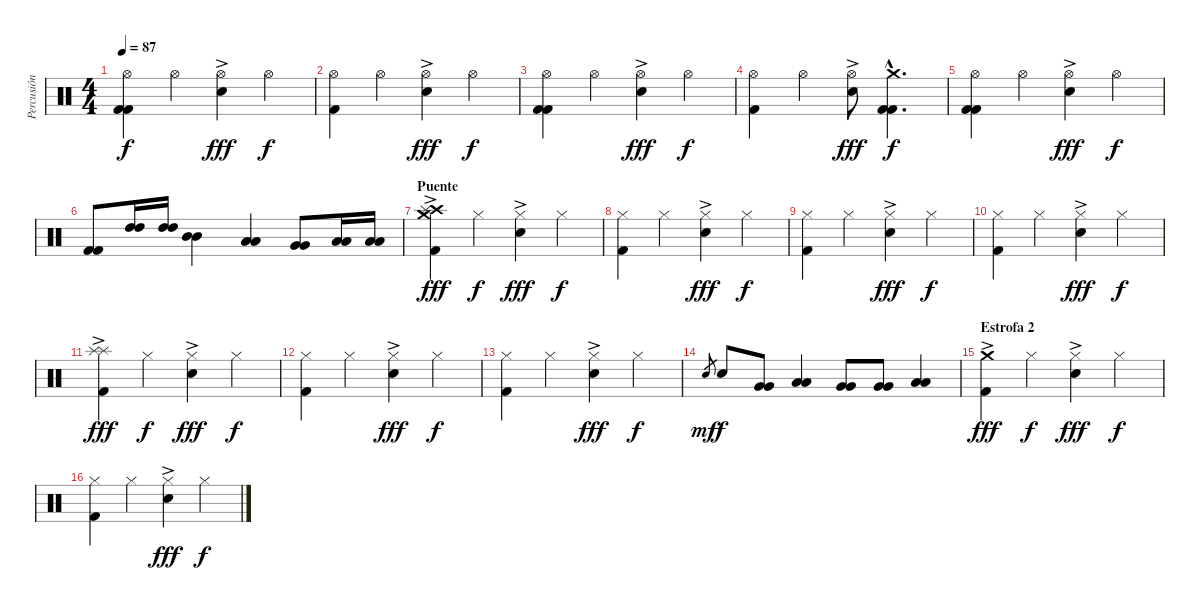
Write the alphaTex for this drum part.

\track ("Percusión" "Percusión") {instrument percussion}
\staff {score}
\articulation defaults
\ts (4 4)
\tempo 87
\clef neutral
\ks c
("Hi-Hat (open)" "Kick (hit) 2" "Kick (hit) 2").4{dy f} "Hi-Hat (open)".4 ("Hi-Hat (open)"{ac} "Snare (hit) 2").4{dy fff} "Hi-Hat (open)".4{dy f} |
("Hi-Hat (open)" "Kick (hit) 2").4 "Hi-Hat (open)".4 ("Hi-Hat (open)" "Snare (hit) 2"{ac}).4{dy fff} "Hi-Hat (open)".4{dy f} |
("Hi-Hat (open)" "Kick (hit) 2" "Kick (hit) 2").4 "Hi-Hat (open)".4 ("Hi-Hat (open)"{ac} "Snare (hit) 2").4{dy fff} "Hi-Hat (open)".4{dy f} |
("Hi-Hat (open)" "Kick (hit) 2").4 "Hi-Hat (open)".4 ("Hi-Hat (open)" "Snare (hit) 2"{ac}).8{dy fff} ("Crash medium (hit)"{hac} "Kick (hit) 2"{hac} "Kick (hit) 2"{hac}).4{d dy f} |
("Hi-Hat (open)" "Kick (hit) 2" "Kick (hit) 2").4 "Hi-Hat (open)".4 ("Hi-Hat (open)"{ac} "Snare (hit) 2").4{dy fff} "Hi-Hat (open)".4{dy f} |
("Kick (hit) 2" "Kick (hit) 2").8 ("High Tom (hit)" "High Tom (hit)").16 ("High Tom (hit)" "High Tom (hit)").16 ("Mid Tom (hit)" "Mid Tom (hit)").4 ("Low Tom (hit)" "Low Tom (hit)").4 ("Very Low Tom (hit)" "Very Low Tom (hit)").8 ("Low Tom (hit)" "Low Tom (hit)").16 ("Low Tom (hit)" "Low Tom (hit)").16 |
\section ("" "Puente")
("Crash medium (hit)"{ac} "Crash high (hit)" "Splash (hit)" "Kick (hit) 2").4{dy fff} "Hi-Hat (closed)".4{dy f} ("Hi-Hat (closed)" "Snare (hit) 2"{ac}).4{dy fff} "Hi-Hat (closed)".4{dy f} |
("Hi-Hat (closed)" "Kick (hit) 2").4 "Hi-Hat (closed)".4 ("Hi-Hat (closed)" "Snare (hit) 2"{ac}).4{dy fff} "Hi-Hat (closed)".4{dy f} |
("Hi-Hat (closed)" "Kick (hit) 2").4 "Hi-Hat (closed)".4 ("Hi-Hat (closed)"{ac} "Snare (hit) 2"{ac}).4{dy fff} "Hi-Hat (closed)".4{dy f} |
("Hi-Hat (closed)" "Kick (hit) 2").4 "Hi-Hat (closed)".4 ("Hi-Hat (closed)"{ac} "Snare (hit) 2"{ac}).4{dy fff} "Hi-Hat (closed)".4{dy f} |
("Splash (hit)"{ac} "Splash (hit)" "Kick (hit) 2").4{dy fff} "Hi-Hat (closed)".4{dy f} ("Hi-Hat (closed)" "Snare (hit) 2"{ac}).4{dy fff} "Hi-Hat (closed)".4{dy f} |
("Hi-Hat (closed)" "Kick (hit) 2").4 "Hi-Hat (closed)".4 ("Hi-Hat (closed)" "Snare (hit) 2"{ac}).4{dy fff} "Hi-Hat (closed)".4{dy f} |
("Hi-Hat (closed)" "Kick (hit) 2").4 "Hi-Hat (closed)".4 ("Hi-Hat (closed)"{ac} "Snare (hit) 2"{ac}).4{dy fff} "Hi-Hat (closed)".4{dy f} |
"Snare (hit) 2"{h}.8{gr dy mf} "Snare (hit) 2".8{dy f} ("Very Low Tom (hit)" "Very Low Tom (hit)").8 ("Low Tom (hit)" "Low Tom (hit)").4 ("Very Low Tom (hit)" "Very Low Tom (hit)").8 ("Very Low Tom (hit)" "Very Low Tom (hit)").8 ("Low Tom (hit)" "Low Tom (hit)").4 |
\section ("" "Estrofa 2")
("Crash medium (hit)"{ac} "Kick (hit) 2").4{dy fff} "Hi-Hat (closed)".4{dy f} ("Hi-Hat (closed)" "Snare (hit) 2"{ac}).4{dy fff} "Hi-Hat (closed)".4{dy f} |
("Hi-Hat (closed)" "Kick (hit) 2").4 "Hi-Hat (closed)".4 ("Hi-Hat (closed)" "Snare (hit) 2"{ac}).4{dy fff} "Hi-Hat (closed)".4{dy f}
